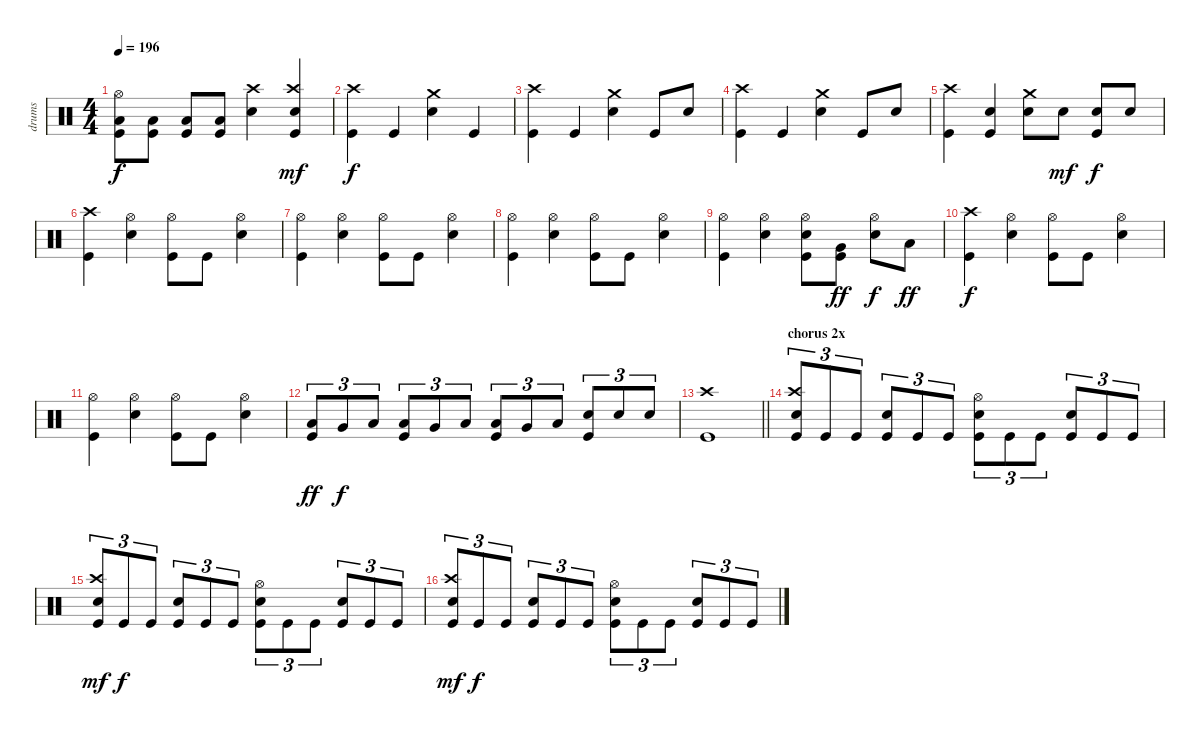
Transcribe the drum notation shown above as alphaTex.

\track ("drums" "drums") {instrument percussion}
\staff {score}
\articulation defaults
\ts (4 4)
\tempo 196
\clef neutral
\ks c
("Hi-Hat (open)" "Low Floor Tom (hit)" "Kick (hit)").8{dy f} ("Low Floor Tom (hit)" "Kick (hit)").8 ("Low Floor Tom (hit)" "Kick (hit)").8 ("Low Floor Tom (hit)" "Kick (hit)").8 ("Crash high (hit)" "Electric Snare (hit)").4 ("Crash high (hit)" "Electric Snare (hit)" "Kick (hit)").4{dy mf} |
("Crash high (hit)" "Kick (hit)").4{dy f} "Kick (hit)".4 ("Crash medium (hit)" "Electric Snare (hit)").4 "Kick (hit)".4 |
("Crash high (hit)" "Kick (hit)").4 "Kick (hit)".4 ("Crash medium (hit)" "Electric Snare (hit)").4 "Kick (hit)".8 "Electric Snare (hit)".8 |
("Crash high (hit)" "Kick (hit)").4 "Kick (hit)".4 ("Crash medium (hit)" "Electric Snare (hit)").4 "Kick (hit)".8 "Electric Snare (hit)".8 |
("Crash high (hit)" "Kick (hit)").4 ("Electric Snare (hit)" "Kick (hit)").4 ("Crash medium (hit)" "Electric Snare (hit)").8 "Electric Snare (hit)".8{dy mf} ("Electric Snare (hit)" "Kick (hit)").8{dy f} "Electric Snare (hit)".8 |
("Crash high (hit)" "Kick (hit)").4 ("Hi-Hat (open)" "Electric Snare (hit)").4 ("Hi-Hat (open)" "Kick (hit)").8 "Kick (hit)".8 ("Hi-Hat (open)" "Electric Snare (hit)").4 |
("Hi-Hat (open)" "Kick (hit)").4 ("Hi-Hat (open)" "Electric Snare (hit)").4 ("Hi-Hat (open)" "Kick (hit)").8 "Kick (hit)".8 ("Hi-Hat (open)" "Electric Snare (hit)").4 |
("Hi-Hat (open)" "Kick (hit)").4 ("Hi-Hat (open)" "Electric Snare (hit)").4 ("Hi-Hat (open)" "Kick (hit)").8 "Kick (hit)".8 ("Hi-Hat (open)" "Electric Snare (hit)").4 |
("Hi-Hat (open)" "Kick (hit)").4 ("Hi-Hat (open)" "Electric Snare (hit)").4 ("Hi-Hat (open)" "Electric Snare (hit)" "Kick (hit)").8 ("Very Low Tom (hit)" "Kick (hit)").8{dy ff} ("Hi-Hat (open)" "Electric Snare (hit)").8{dy f} "Low Floor Tom (hit)".8{dy ff} |
("Crash high (hit)" "Kick (hit)").4{dy f} ("Hi-Hat (open)" "Electric Snare (hit)").4 ("Hi-Hat (open)" "Kick (hit)").8 "Kick (hit)".8 ("Hi-Hat (open)" "Electric Snare (hit)").4 |
("Hi-Hat (open)" "Kick (hit)").4 ("Hi-Hat (open)" "Electric Snare (hit)").4 ("Hi-Hat (open)" "Kick (hit)").8 "Kick (hit)".8 ("Hi-Hat (open)" "Electric Snare (hit)").4 |
("Low Tom (hit)" "Kick (hit)").8{tu (3 2) dy ff} "Very Low Tom (hit)".8{tu (3 2) dy f} "Low Floor Tom (hit)".8{tu (3 2)} ("Low Tom (hit)" "Kick (hit)").8{tu (3 2)} "Very Low Tom (hit)".8{tu (3 2)} "Low Floor Tom (hit)".8{tu (3 2)} ("Low Tom (hit)" "Kick (hit)").8{tu (3 2)} "Very Low Tom (hit)".8{tu (3 2)} "Low Floor Tom (hit)".8{tu (3 2)} ("Electric Snare (hit)" "Kick (hit)").8{tu (3 2)} "Electric Snare (hit)".8{tu (3 2)} "Electric Snare (hit)".8{tu (3 2)} |
\barLineRight lightlight
("Crash high (hit)" "Kick (hit)").1 |
\section ("" "chorus 2x")
("Crash high (hit)" "Electric Snare (hit)" "Kick (hit)").8{tu (3 2)} "Kick (hit)".8{tu (3 2)} "Kick (hit)".8{tu (3 2)} ("Electric Snare (hit)" "Kick (hit)").8{tu (3 2)} "Kick (hit)".8{tu (3 2)} "Kick (hit)".8{tu (3 2)} ("Hi-Hat (open)" "Electric Snare (hit)" "Kick (hit)").8{tu (3 2)} "Kick (hit)".8{tu (3 2)} "Kick (hit)".8{tu (3 2)} ("Electric Snare (hit)" "Kick (hit)").8{tu (3 2)} "Kick (hit)".8{tu (3 2)} "Kick (hit)".8{tu (3 2)} |
("Crash high (hit)" "Electric Snare (hit)" "Kick (hit)").8{tu (3 2) dy mf} "Kick (hit)".8{tu (3 2) dy f} "Kick (hit)".8{tu (3 2)} ("Electric Snare (hit)" "Kick (hit)").8{tu (3 2)} "Kick (hit)".8{tu (3 2)} "Kick (hit)".8{tu (3 2)} ("Hi-Hat (open)" "Electric Snare (hit)" "Kick (hit)").8{tu (3 2)} "Kick (hit)".8{tu (3 2)} "Kick (hit)".8{tu (3 2)} ("Electric Snare (hit)" "Kick (hit)").8{tu (3 2)} "Kick (hit)".8{tu (3 2)} "Kick (hit)".8{tu (3 2)} |
("Crash high (hit)" "Electric Snare (hit)" "Kick (hit)").8{tu (3 2) dy mf} "Kick (hit)".8{tu (3 2) dy f} "Kick (hit)".8{tu (3 2)} ("Electric Snare (hit)" "Kick (hit)").8{tu (3 2)} "Kick (hit)".8{tu (3 2)} "Kick (hit)".8{tu (3 2)} ("Hi-Hat (open)" "Electric Snare (hit)" "Kick (hit)").8{tu (3 2)} "Kick (hit)".8{tu (3 2)} "Kick (hit)".8{tu (3 2)} ("Electric Snare (hit)" "Kick (hit)").8{tu (3 2)} "Kick (hit)".8{tu (3 2)} "Kick (hit)".8{tu (3 2)}
